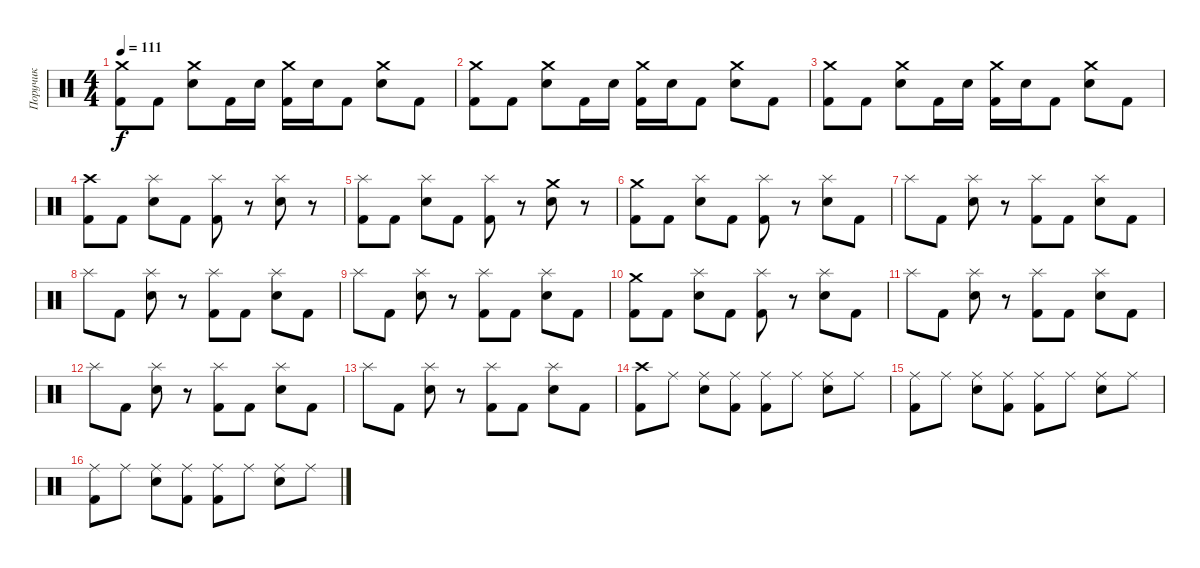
\track ("Поручик" "Поручик") {instrument percussion}
\staff {score}
\articulation defaults
\ts (4 4)
\tempo 111
\clef neutral
\ks c
("Crash medium (hit)" "Kick (hit) 2").8{dy f} "Kick (hit) 2".8 ("Crash medium (hit)" "Electric Snare (hit)").8 "Kick (hit) 2".16 "Electric Snare (hit)".16 ("Crash medium (hit)" "Kick (hit) 2").16 "Electric Snare (hit)".16 "Kick (hit) 2".8 ("Crash medium (hit)" "Electric Snare (hit)").8 "Kick (hit) 2".8 |
("Crash medium (hit)" "Kick (hit) 2").8 "Kick (hit) 2".8 ("Crash medium (hit)" "Electric Snare (hit)").8 "Kick (hit) 2".16 "Electric Snare (hit)".16 ("Crash medium (hit)" "Kick (hit) 2").16 "Electric Snare (hit)".16 "Kick (hit) 2".8 ("Crash medium (hit)" "Electric Snare (hit)").8 "Kick (hit) 2".8 |
("Crash medium (hit)" "Kick (hit) 2").8 "Kick (hit) 2".8 ("Crash medium (hit)" "Electric Snare (hit)").8 "Kick (hit) 2".16 "Electric Snare (hit)".16 ("Crash medium (hit)" "Kick (hit) 2").16 "Electric Snare (hit)".16 "Kick (hit) 2".8 ("Crash medium (hit)" "Electric Snare (hit)").8 "Kick (hit) 2".8 |
("Crash high (hit)" "Kick (hit) 2").8 "Kick (hit) 2".8 ("Splash (hit)" "Electric Snare (hit)").8 "Kick (hit) 2".8 ("Splash (hit)" "Kick (hit) 2").8 r.8 ("Splash (hit)" "Electric Snare (hit)").8 r.8 |
("Splash (hit)" "Kick (hit) 2").8 "Kick (hit) 2".8 ("Splash (hit)" "Electric Snare (hit)").8 "Kick (hit) 2".8 ("Splash (hit)" "Kick (hit) 2").8 r.8 ("Crash medium (hit)" "Electric Snare (hit)").8 r.8 |
("Crash medium (hit)" "Kick (hit) 2").8 "Kick (hit) 2".8 ("Splash (hit)" "Electric Snare (hit)").8 "Kick (hit) 2".8 ("Splash (hit)" "Kick (hit) 2").8 r.8 ("Splash (hit)" "Electric Snare (hit)").8 "Kick (hit) 2".8 |
"Splash (hit)".8 "Kick (hit) 2".8 ("Splash (hit)" "Electric Snare (hit)").8 r.8 ("Splash (hit)" "Kick (hit) 2").8 "Kick (hit) 2".8 ("Splash (hit)" "Electric Snare (hit)").8 "Kick (hit) 2".8 |
"Splash (hit)".8 "Kick (hit) 2".8 ("Splash (hit)" "Electric Snare (hit)").8 r.8 ("Splash (hit)" "Kick (hit) 2").8 "Kick (hit) 2".8 ("Splash (hit)" "Electric Snare (hit)").8 "Kick (hit) 2".8 |
"Splash (hit)".8 "Kick (hit) 2".8 ("Splash (hit)" "Electric Snare (hit)").8 r.8 ("Splash (hit)" "Kick (hit) 2").8 "Kick (hit) 2".8 ("Splash (hit)" "Electric Snare (hit)").8 "Kick (hit) 2".8 |
("Crash medium (hit)" "Kick (hit) 2").8 "Kick (hit) 2".8 ("Splash (hit)" "Electric Snare (hit)").8 "Kick (hit) 2".8 ("Splash (hit)" "Kick (hit) 2").8 r.8 ("Splash (hit)" "Electric Snare (hit)").8 "Kick (hit) 2".8 |
"Splash (hit)".8 "Kick (hit) 2".8 ("Splash (hit)" "Electric Snare (hit)").8 r.8 ("Splash (hit)" "Kick (hit) 2").8 "Kick (hit) 2".8 ("Splash (hit)" "Electric Snare (hit)").8 "Kick (hit) 2".8 |
"Splash (hit)".8 "Kick (hit) 2".8 ("Splash (hit)" "Electric Snare (hit)").8 r.8 ("Splash (hit)" "Kick (hit) 2").8 "Kick (hit) 2".8 ("Splash (hit)" "Electric Snare (hit)").8 "Kick (hit) 2".8 |
"Splash (hit)".8 "Kick (hit) 2".8 ("Splash (hit)" "Electric Snare (hit)").8 r.8 ("Splash (hit)" "Kick (hit) 2").8 "Kick (hit) 2".8 ("Splash (hit)" "Electric Snare (hit)").8 "Kick (hit) 2".8 |
("Crash high (hit)" "Kick (hit) 2").8 "Ride (middle)".8 ("Ride (middle)" "Electric Snare (hit)").8 ("Ride (middle)" "Kick (hit) 2").8 ("Ride (middle)" "Kick (hit) 2").8 "Ride (middle)".8 ("Ride (middle)" "Electric Snare (hit)").8 "Ride (middle)".8 |
("Ride (middle)" "Kick (hit) 2").8 "Ride (middle)".8 ("Ride (middle)" "Electric Snare (hit)").8 ("Ride (middle)" "Kick (hit) 2").8 ("Ride (middle)" "Kick (hit) 2").8 "Ride (middle)".8 ("Ride (middle)" "Electric Snare (hit)").8 "Ride (middle)".8 |
("Ride (middle)" "Kick (hit) 2").8 "Ride (middle)".8 ("Ride (middle)" "Electric Snare (hit)").8 ("Ride (middle)" "Kick (hit) 2").8 ("Ride (middle)" "Kick (hit) 2").8 "Ride (middle)".8 ("Ride (middle)" "Electric Snare (hit)").8 "Ride (middle)".8
